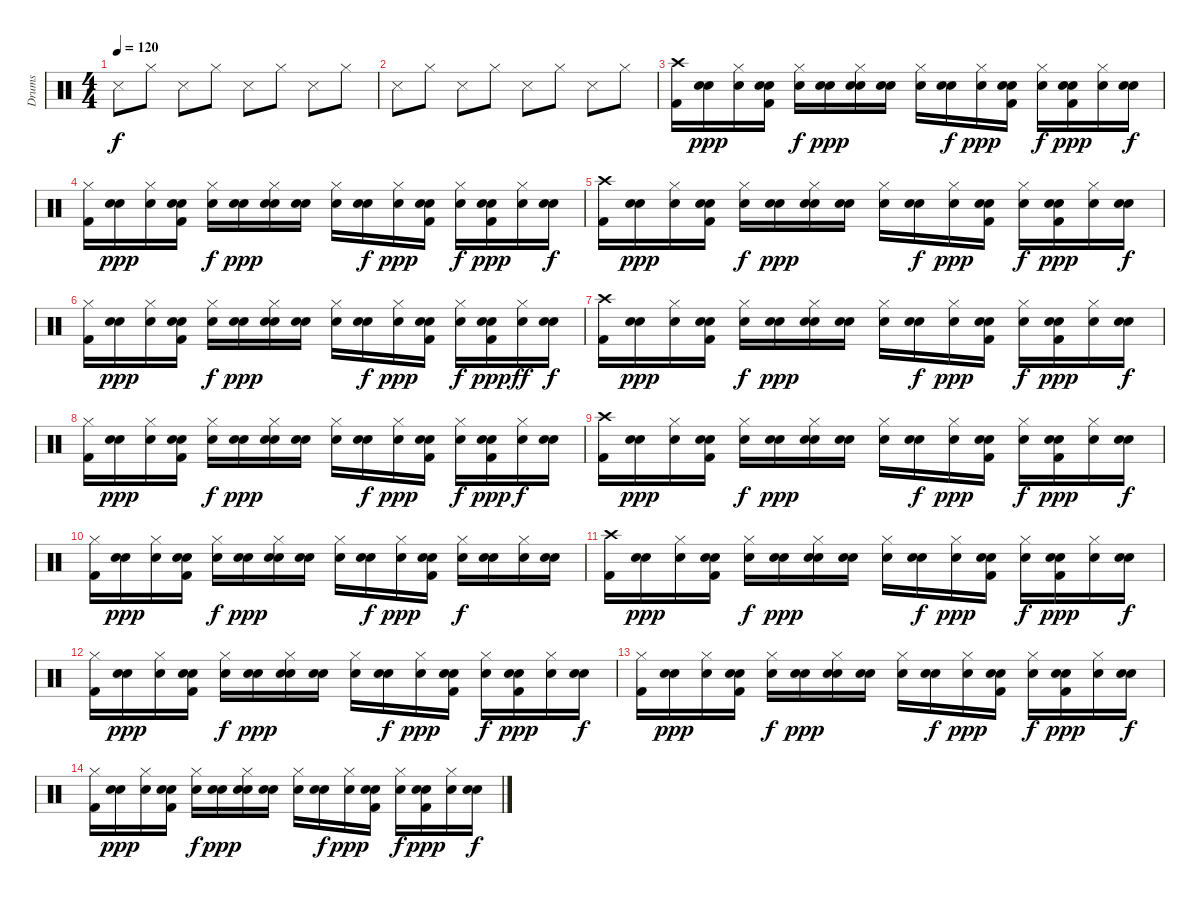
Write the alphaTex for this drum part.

\track ("Drums" "Drums") {instrument percussion}
\staff {score}
\articulation defaults
\ts (4 4)
\tempo 120
\clef neutral
\ks c "Snare (side stick) 3".8{dy f} "Hi-Hat (closed)".8 "Snare (side stick) 3".8 "Hi-Hat (closed)".8 "Snare (side stick) 3".8 "Hi-Hat (closed)".8 "Snare (side stick) 3".8 "Hi-Hat (closed)".8
|
"Snare (side stick) 3".8 "Hi-Hat (closed)".8 "Snare (side stick) 3".8 "Hi-Hat (closed)".8 "Snare (side stick) 3".8 "Hi-Hat (closed)".8 "Snare (side stick) 3".8 "Hi-Hat (closed)".8 |
("Crash high (hit)" "Kick (hit) 2").16 ("Snare (hit)" "Electric Snare (hit)").16{dy ppp} ("Hi-Hat (closed)" "Electric Snare (hit)").16 ("Snare (hit)" "Electric Snare (hit)" "Kick (hit) 2").16 ("Hi-Hat (closed)" "Electric Snare (hit)").16{dy f} ("Snare (hit)" "Electric Snare (hit)").16{dy ppp} ("Hi-Hat (closed)" "Electric Snare (hit)" "Electric Snare (hit)").16 ("Snare (hit)" "Electric Snare (hit)").16 ("Hi-Hat (closed)" "Electric Snare (hit)").16 ("Snare (hit)" "Electric Snare (hit)").16{dy f} ("Hi-Hat (closed)" "Electric Snare (hit)").16{dy ppp} ("Snare (hit)" "Electric Snare (hit)" "Kick (hit) 2").16 ("Hi-Hat (closed)" "Electric Snare (hit)").16{dy f} ("Snare (hit)" "Electric Snare (hit)" "Kick (hit) 2").16{dy ppp} ("Hi-Hat (closed)" "Electric Snare (hit)").16 ("Snare (hit)" "Electric Snare (hit)").16{dy f} |
("Hi-Hat (closed)" "Kick (hit) 2").16 ("Snare (hit)" "Electric Snare (hit)").16{dy ppp} ("Hi-Hat (closed)" "Electric Snare (hit)").16 ("Snare (hit)" "Electric Snare (hit)" "Kick (hit) 2").16 ("Hi-Hat (closed)" "Electric Snare (hit)").16{dy f} ("Snare (hit)" "Electric Snare (hit)").16{dy ppp} ("Hi-Hat (closed)" "Electric Snare (hit)" "Electric Snare (hit)").16 ("Snare (hit)" "Electric Snare (hit)").16 ("Hi-Hat (closed)" "Electric Snare (hit)").16 ("Snare (hit)" "Electric Snare (hit)").16{dy f} ("Hi-Hat (closed)" "Electric Snare (hit)").16{dy ppp} ("Snare (hit)" "Electric Snare (hit)" "Kick (hit) 2").16 ("Hi-Hat (closed)" "Electric Snare (hit)").16{dy f} ("Snare (hit)" "Electric Snare (hit)" "Kick (hit) 2").16{dy ppp} ("Hi-Hat (closed)" "Electric Snare (hit)").16 ("Snare (hit)" "Electric Snare (hit)").16{dy f} |
("Crash high (hit)" "Kick (hit) 2").16 ("Snare (hit)" "Electric Snare (hit)").16{dy ppp} ("Hi-Hat (closed)" "Electric Snare (hit)").16 ("Snare (hit)" "Electric Snare (hit)" "Kick (hit) 2").16 ("Hi-Hat (closed)" "Electric Snare (hit)").16{dy f} ("Snare (hit)" "Electric Snare (hit)").16{dy ppp} ("Hi-Hat (closed)" "Electric Snare (hit)" "Electric Snare (hit)").16 ("Snare (hit)" "Electric Snare (hit)").16 ("Hi-Hat (closed)" "Electric Snare (hit)").16 ("Snare (hit)" "Electric Snare (hit)").16{dy f} ("Hi-Hat (closed)" "Electric Snare (hit)").16{dy ppp} ("Snare (hit)" "Electric Snare (hit)" "Kick (hit) 2").16 ("Hi-Hat (closed)" "Electric Snare (hit)").16{dy f} ("Snare (hit)" "Electric Snare (hit)" "Kick (hit) 2").16{dy ppp} ("Hi-Hat (closed)" "Electric Snare (hit)").16 ("Snare (hit)" "Electric Snare (hit)").16{dy f} |
("Hi-Hat (closed)" "Kick (hit) 2").16 ("Snare (hit)" "Electric Snare (hit)").16{dy ppp} ("Hi-Hat (closed)" "Electric Snare (hit)").16 ("Snare (hit)" "Electric Snare (hit)" "Kick (hit) 2").16 ("Hi-Hat (closed)" "Electric Snare (hit)").16{dy f} ("Snare (hit)" "Electric Snare (hit)").16{dy ppp} ("Hi-Hat (closed)" "Electric Snare (hit)" "Electric Snare (hit)").16 ("Snare (hit)" "Electric Snare (hit)").16 ("Hi-Hat (closed)" "Electric Snare (hit)").16 ("Snare (hit)" "Electric Snare (hit)").16{dy f} ("Hi-Hat (closed)" "Electric Snare (hit)").16{dy ppp} ("Snare (hit)" "Electric Snare (hit)" "Kick (hit) 2").16 ("Hi-Hat (closed)" "Electric Snare (hit)").16{dy f} ("Snare (hit)" "Electric Snare (hit)" "Kick (hit) 2").16{dy ppp} ("Hi-Hat (closed)" "Electric Snare (hit)").16{dy ff} ("Snare (hit)" "Electric Snare (hit)").16{dy f} |
("Crash high (hit)" "Kick (hit) 2").16 ("Snare (hit)" "Electric Snare (hit)").16{dy ppp} ("Hi-Hat (closed)" "Electric Snare (hit)").16 ("Snare (hit)" "Electric Snare (hit)" "Kick (hit) 2").16 ("Hi-Hat (closed)" "Electric Snare (hit)").16{dy f} ("Snare (hit)" "Electric Snare (hit)").16{dy ppp} ("Hi-Hat (closed)" "Electric Snare (hit)" "Electric Snare (hit)").16 ("Snare (hit)" "Electric Snare (hit)").16 ("Hi-Hat (closed)" "Electric Snare (hit)").16 ("Snare (hit)" "Electric Snare (hit)").16{dy f} ("Hi-Hat (closed)" "Electric Snare (hit)").16{dy ppp} ("Snare (hit)" "Electric Snare (hit)" "Kick (hit) 2").16 ("Hi-Hat (closed)" "Electric Snare (hit)").16{dy f} ("Snare (hit)" "Electric Snare (hit)" "Kick (hit) 2").16{dy ppp} ("Hi-Hat (closed)" "Electric Snare (hit)").16 ("Snare (hit)" "Electric Snare (hit)").16{dy f} |
("Hi-Hat (closed)" "Kick (hit) 2").16 ("Snare (hit)" "Electric Snare (hit)").16{dy ppp} ("Hi-Hat (closed)" "Electric Snare (hit)").16 ("Snare (hit)" "Electric Snare (hit)" "Kick (hit) 2").16 ("Hi-Hat (closed)" "Electric Snare (hit)").16{dy f} ("Snare (hit)" "Electric Snare (hit)").16{dy ppp} ("Hi-Hat (closed)" "Electric Snare (hit)" "Electric Snare (hit)").16 ("Snare (hit)" "Electric Snare (hit)").16 ("Hi-Hat (closed)" "Electric Snare (hit)").16 ("Snare (hit)" "Electric Snare (hit)").16{dy f} ("Hi-Hat (closed)" "Electric Snare (hit)").16{dy ppp} ("Snare (hit)" "Electric Snare (hit)" "Kick (hit) 2").16 ("Hi-Hat (closed)" "Electric Snare (hit)").16{dy f} ("Snare (hit)" "Electric Snare (hit)" "Kick (hit) 2").16{dy ppp} ("Hi-Hat (closed)" "Electric Snare (hit)").16{dy f} ("Snare (hit)" "Electric Snare (hit)").16 |
("Crash high (hit)" "Kick (hit) 2").16 ("Snare (hit)" "Electric Snare (hit)").16{dy ppp} ("Hi-Hat (closed)" "Electric Snare (hit)").16 ("Snare (hit)" "Electric Snare (hit)" "Kick (hit) 2").16 ("Hi-Hat (closed)" "Electric Snare (hit)").16{dy f} ("Snare (hit)" "Electric Snare (hit)").16{dy ppp} ("Hi-Hat (closed)" "Electric Snare (hit)" "Electric Snare (hit)").16 ("Snare (hit)" "Electric Snare (hit)").16 ("Hi-Hat (closed)" "Electric Snare (hit)").16 ("Snare (hit)" "Electric Snare (hit)").16{dy f} ("Hi-Hat (closed)" "Electric Snare (hit)").16{dy ppp} ("Snare (hit)" "Electric Snare (hit)" "Kick (hit) 2").16 ("Hi-Hat (closed)" "Electric Snare (hit)").16{dy f} ("Snare (hit)" "Electric Snare (hit)" "Kick (hit) 2").16{dy ppp} ("Hi-Hat (closed)" "Electric Snare (hit)").16 ("Snare (hit)" "Electric Snare (hit)").16{dy f} |
("Hi-Hat (closed)" "Kick (hit) 2").16 ("Snare (hit)" "Electric Snare (hit)").16{dy ppp} ("Hi-Hat (closed)" "Electric Snare (hit)").16 ("Snare (hit)" "Electric Snare (hit)" "Kick (hit) 2").16 ("Hi-Hat (closed)" "Electric Snare (hit)").16{dy f} ("Snare (hit)" "Electric Snare (hit)").16{dy ppp} ("Hi-Hat (closed)" "Electric Snare (hit)" "Electric Snare (hit)").16 ("Snare (hit)" "Electric Snare (hit)").16 ("Hi-Hat (closed)" "Electric Snare (hit)").16 ("Snare (hit)" "Electric Snare (hit)").16{dy f} ("Hi-Hat (closed)" "Electric Snare (hit)").16{dy ppp} ("Snare (hit)" "Electric Snare (hit)" "Kick (hit) 2").16 ("Hi-Hat (closed)" "Electric Snare (hit)").16{dy f} ("Snare (hit)" "Electric Snare (hit)").16 ("Hi-Hat (closed)" "Electric Snare (hit)").16 ("Snare (hit)" "Electric Snare (hit)").16 |
("Crash high (hit)" "Kick (hit) 2").16 ("Snare (hit)" "Electric Snare (hit)").16{dy ppp} ("Hi-Hat (closed)" "Electric Snare (hit)").16 ("Snare (hit)" "Electric Snare (hit)" "Kick (hit) 2").16 ("Hi-Hat (closed)" "Electric Snare (hit)").16{dy f} ("Snare (hit)" "Electric Snare (hit)").16{dy ppp} ("Hi-Hat (closed)" "Electric Snare (hit)" "Electric Snare (hit)").16 ("Snare (hit)" "Electric Snare (hit)").16 ("Hi-Hat (closed)" "Electric Snare (hit)").16 ("Snare (hit)" "Electric Snare (hit)").16{dy f} ("Hi-Hat (closed)" "Electric Snare (hit)").16{dy ppp} ("Snare (hit)" "Electric Snare (hit)" "Kick (hit) 2").16 ("Hi-Hat (closed)" "Electric Snare (hit)").16{dy f} ("Snare (hit)" "Electric Snare (hit)" "Kick (hit) 2").16{dy ppp} ("Hi-Hat (closed)" "Electric Snare (hit)").16 ("Snare (hit)" "Electric Snare (hit)").16{dy f} |
("Hi-Hat (closed)" "Kick (hit) 2").16 ("Snare (hit)" "Electric Snare (hit)").16{dy ppp} ("Hi-Hat (closed)" "Electric Snare (hit)").16 ("Snare (hit)" "Electric Snare (hit)" "Kick (hit) 2").16 ("Hi-Hat (closed)" "Electric Snare (hit)").16{dy f} ("Snare (hit)" "Electric Snare (hit)").16{dy ppp} ("Hi-Hat (closed)" "Electric Snare (hit)" "Electric Snare (hit)").16 ("Snare (hit)" "Electric Snare (hit)").16 ("Hi-Hat (closed)" "Electric Snare (hit)").16 ("Snare (hit)" "Electric Snare (hit)").16{dy f} ("Hi-Hat (closed)" "Electric Snare (hit)").16{dy ppp} ("Snare (hit)" "Electric Snare (hit)" "Kick (hit) 2").16 ("Hi-Hat (closed)" "Electric Snare (hit)").16{dy f} ("Snare (hit)" "Electric Snare (hit)" "Kick (hit) 2").16{dy ppp} ("Hi-Hat (closed)" "Electric Snare (hit)").16 ("Snare (hit)" "Electric Snare (hit)").16{dy f} |
("Hi-Hat (closed)" "Kick (hit) 2").16 ("Snare (hit)" "Electric Snare (hit)").16{dy ppp} ("Hi-Hat (closed)" "Electric Snare (hit)").16 ("Snare (hit)" "Electric Snare (hit)" "Kick (hit) 2").16 ("Hi-Hat (closed)" "Electric Snare (hit)").16{dy f} ("Snare (hit)" "Electric Snare (hit)").16{dy ppp} ("Hi-Hat (closed)" "Electric Snare (hit)" "Electric Snare (hit)").16 ("Snare (hit)" "Electric Snare (hit)").16 ("Hi-Hat (closed)" "Electric Snare (hit)").16 ("Snare (hit)" "Electric Snare (hit)").16{dy f} ("Hi-Hat (closed)" "Electric Snare (hit)").16{dy ppp} ("Snare (hit)" "Electric Snare (hit)" "Kick (hit) 2").16 ("Hi-Hat (closed)" "Electric Snare (hit)").16{dy f} ("Snare (hit)" "Electric Snare (hit)" "Kick (hit) 2").16{dy ppp} ("Hi-Hat (closed)" "Electric Snare (hit)").16 ("Snare (hit)" "Electric Snare (hit)").16{dy f} |
("Hi-Hat (closed)" "Kick (hit) 2").16 ("Snare (hit)" "Electric Snare (hit)").16{dy ppp} ("Hi-Hat (closed)" "Electric Snare (hit)").16 ("Snare (hit)" "Electric Snare (hit)" "Kick (hit) 2").16 ("Hi-Hat (closed)" "Electric Snare (hit)").16{dy f} ("Snare (hit)" "Electric Snare (hit)").16{dy ppp} ("Hi-Hat (closed)" "Electric Snare (hit)" "Electric Snare (hit)").16 ("Snare (hit)" "Electric Snare (hit)").16 ("Hi-Hat (closed)" "Electric Snare (hit)").16 ("Snare (hit)" "Electric Snare (hit)").16{dy f} ("Hi-Hat (closed)" "Electric Snare (hit)").16{dy ppp} ("Snare (hit)" "Electric Snare (hit)" "Kick (hit) 2").16 ("Hi-Hat (closed)" "Electric Snare (hit)").16{dy f} ("Snare (hit)" "Electric Snare (hit)" "Kick (hit) 2").16{dy ppp} ("Hi-Hat (closed)" "Electric Snare (hit)").16 ("Snare (hit)" "Electric Snare (hit)").16{dy f}
